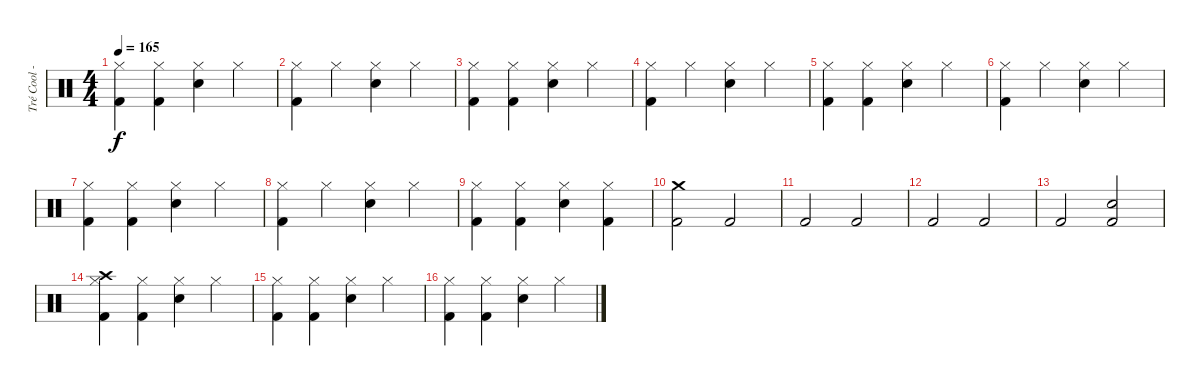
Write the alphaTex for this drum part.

\track ("Tré Cool - Drums" "Tré Cool -") {instrument percussion}
\staff {score}
\articulation defaults
\ts (4 4)
\tempo 165
\clef neutral
\ks c
("Hi-Hat (closed)" "Kick (hit) 2").4{dy f} ("Hi-Hat (closed)" "Kick (hit) 2").4 ("Hi-Hat (closed)" "Electric Snare (hit)").4 "Hi-Hat (closed)".4 |
("Hi-Hat (closed)" "Kick (hit) 2").4 "Hi-Hat (closed)".4 ("Hi-Hat (closed)" "Electric Snare (hit)").4 "Hi-Hat (closed)".4 |
("Hi-Hat (closed)" "Kick (hit) 2").4 ("Hi-Hat (closed)" "Kick (hit) 2").4 ("Hi-Hat (closed)" "Electric Snare (hit)").4 "Hi-Hat (closed)".4 |
("Hi-Hat (closed)" "Kick (hit) 2").4 "Hi-Hat (closed)".4 ("Hi-Hat (closed)" "Electric Snare (hit)").4 "Hi-Hat (closed)".4 |
("Hi-Hat (closed)" "Kick (hit) 2").4 ("Hi-Hat (closed)" "Kick (hit) 2").4 ("Hi-Hat (closed)" "Electric Snare (hit)").4 "Hi-Hat (closed)".4 |
("Hi-Hat (closed)" "Kick (hit) 2").4 "Hi-Hat (closed)".4 ("Hi-Hat (closed)" "Electric Snare (hit)").4 "Hi-Hat (closed)".4 |
("Hi-Hat (closed)" "Kick (hit) 2").4 ("Hi-Hat (closed)" "Kick (hit) 2").4 ("Hi-Hat (closed)" "Electric Snare (hit)").4 "Hi-Hat (closed)".4 |
("Hi-Hat (closed)" "Kick (hit) 2").4 "Hi-Hat (closed)".4 ("Hi-Hat (closed)" "Electric Snare (hit)").4 "Hi-Hat (closed)".4 |
("Hi-Hat (closed)" "Kick (hit) 2").4 ("Hi-Hat (closed)" "Kick (hit) 2").4 ("Hi-Hat (closed)" "Electric Snare (hit)").4 ("Hi-Hat (closed)" "Kick (hit) 2").4 |
("Crash medium (hit)" "Kick (hit) 2").2 "Kick (hit) 2".2 |
"Kick (hit) 2".2 "Kick (hit) 2".2 |
"Kick (hit) 2".2 "Kick (hit) 2".2 |
"Kick (hit) 2".2 ("Kick (hit) 2" "Electric Snare (hit)").2 |
("Crash high (hit)" "Hi-Hat (closed)" "Kick (hit) 2").4 ("Hi-Hat (closed)" "Kick (hit) 2").4 ("Hi-Hat (closed)" "Electric Snare (hit)").4 "Hi-Hat (closed)".4 |
("Hi-Hat (closed)" "Kick (hit) 2").4 ("Hi-Hat (closed)" "Kick (hit) 2").4 ("Hi-Hat (closed)" "Electric Snare (hit)").4 "Hi-Hat (closed)".4 |
("Hi-Hat (closed)" "Kick (hit) 2").4 ("Hi-Hat (closed)" "Kick (hit) 2").4 ("Hi-Hat (closed)" "Electric Snare (hit)").4 "Hi-Hat (closed)".4
